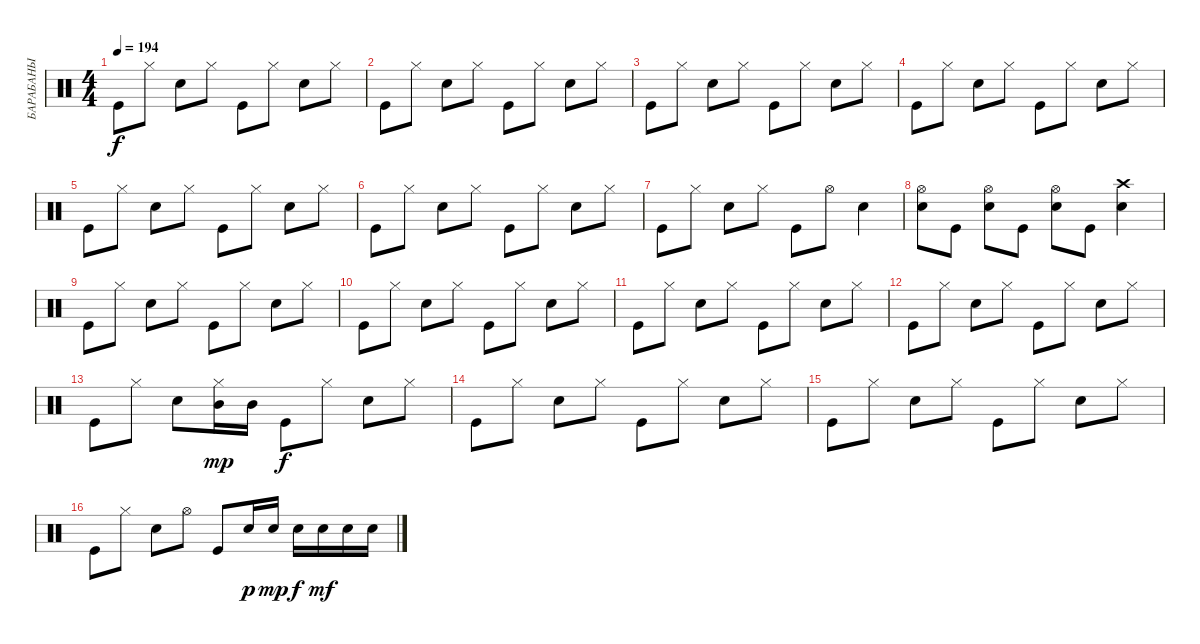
\track ("БАРАБАНЫ" "БАРАБАНЫ") {instrument percussion}
\staff {score}
\articulation defaults
\ts (4 4)
\tempo 194
\clef neutral
\ks c "Kick (hit)".8{dy f} "Hi-Hat (closed)".8 "Electric Snare (hit)".8 "Hi-Hat (closed)".8 "Kick (hit)".8 "Hi-Hat (closed)".8 "Electric Snare (hit)".8 "Hi-Hat (closed)".8
|
"Kick (hit)".8 "Hi-Hat (closed)".8 "Electric Snare (hit)".8 "Hi-Hat (closed)".8 "Kick (hit)".8 "Hi-Hat (closed)".8 "Electric Snare (hit)".8 "Hi-Hat (closed)".8 |
"Kick (hit)".8 "Hi-Hat (closed)".8 "Electric Snare (hit)".8 "Hi-Hat (closed)".8 "Kick (hit)".8 "Hi-Hat (closed)".8 "Electric Snare (hit)".8 "Hi-Hat (closed)".8 |
"Kick (hit)".8 "Hi-Hat (closed)".8 "Electric Snare (hit)".8 "Hi-Hat (closed)".8 "Kick (hit)".8 "Hi-Hat (closed)".8 "Electric Snare (hit)".8 "Hi-Hat (closed)".8 |
"Kick (hit)".8 "Hi-Hat (closed)".8 "Electric Snare (hit)".8 "Hi-Hat (closed)".8 "Kick (hit)".8 "Hi-Hat (closed)".8 "Electric Snare (hit)".8 "Hi-Hat (closed)".8 |
"Kick (hit)".8 "Hi-Hat (closed)".8 "Electric Snare (hit)".8 "Hi-Hat (closed)".8 "Kick (hit)".8 "Hi-Hat (closed)".8 "Electric Snare (hit)".8 "Hi-Hat (closed)".8 |
"Kick (hit)".8 "Hi-Hat (closed)".8 "Electric Snare (hit)".8 "Hi-Hat (closed)".8 "Kick (hit)".8 "Hi-Hat (open)".8 "Electric Snare (hit)".4 |
("Hi-Hat (open)" "Electric Snare (hit)").8 "Kick (hit)".8 ("Hi-Hat (open)" "Electric Snare (hit)").8 "Kick (hit)".8 ("Hi-Hat (open)" "Electric Snare (hit)").8 "Kick (hit)".8 ("Crash high (hit)" "Electric Snare (hit)").4 |
"Kick (hit)".8 "Hi-Hat (closed)".8 "Electric Snare (hit)".8 "Hi-Hat (closed)".8 "Kick (hit)".8 "Hi-Hat (closed)".8 "Electric Snare (hit)".8 "Hi-Hat (closed)".8 |
"Kick (hit)".8 "Hi-Hat (closed)".8 "Electric Snare (hit)".8 "Hi-Hat (closed)".8 "Kick (hit)".8 "Hi-Hat (closed)".8 "Electric Snare (hit)".8 "Hi-Hat (closed)".8 |
"Kick (hit)".8 "Hi-Hat (closed)".8 "Electric Snare (hit)".8 "Hi-Hat (closed)".8 "Kick (hit)".8 "Hi-Hat (closed)".8 "Electric Snare (hit)".8 "Hi-Hat (closed)".8 |
"Kick (hit)".8 "Hi-Hat (closed)".8 "Electric Snare (hit)".8 "Hi-Hat (closed)".8 "Kick (hit)".8 "Hi-Hat (closed)".8 "Electric Snare (hit)".8 "Hi-Hat (closed)".8 |
"Kick (hit)".8 "Hi-Hat (closed)".8 "Electric Snare (hit)".8 ("Hi-Hat (closed)" "Mid Tom (hit)").16{dy mp} "Mid Tom (hit)".16 "Kick (hit)".8{dy f} "Hi-Hat (closed)".8 "Electric Snare (hit)".8 "Hi-Hat (closed)".8 |
"Kick (hit)".8 "Hi-Hat (closed)".8 "Electric Snare (hit)".8 "Hi-Hat (closed)".8 "Kick (hit)".8 "Hi-Hat (closed)".8 "Electric Snare (hit)".8 "Hi-Hat (closed)".8 |
"Kick (hit)".8 "Hi-Hat (closed)".8 "Electric Snare (hit)".8 "Hi-Hat (closed)".8 "Kick (hit)".8 "Hi-Hat (closed)".8 "Electric Snare (hit)".8 "Hi-Hat (closed)".8 |
"Kick (hit)".8 "Hi-Hat (closed)".8 "Electric Snare (hit)".8 "Hi-Hat (open)".8 "Kick (hit)".8 "Electric Snare (hit)".16{dy p} "Electric Snare (hit)".16{dy mp} "Electric Snare (hit)".16{dy f} "Electric Snare (hit)".16{dy mf} "Electric Snare (hit)".16 "Electric Snare (hit)".16
